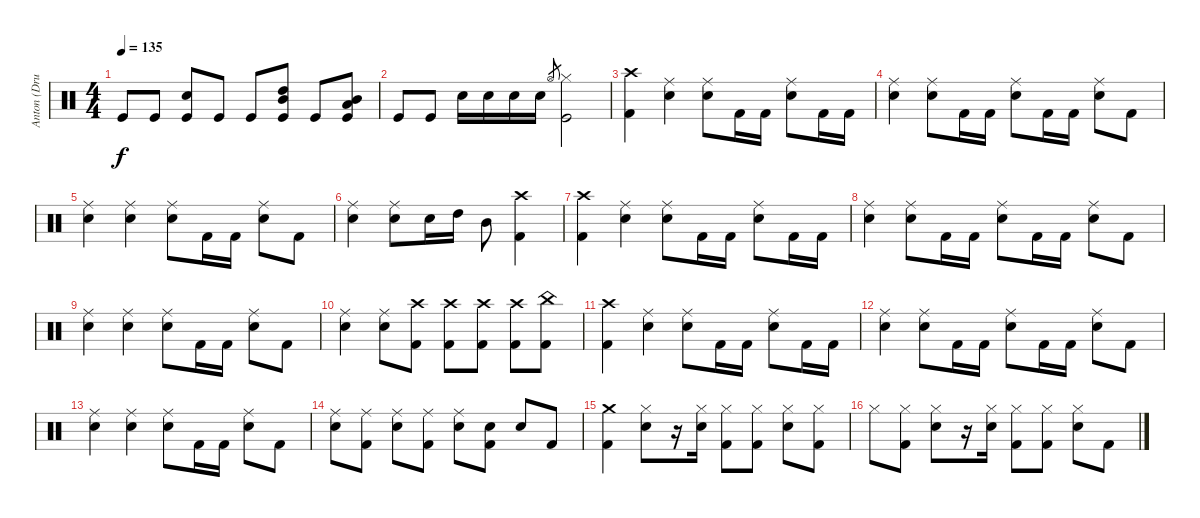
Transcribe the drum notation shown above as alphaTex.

\track ("Anton (Drum)" "Anton (Dru") {instrument percussion}
\staff {score}
\articulation defaults
\ts (4 4)
\tempo 135
\clef neutral
\ks c "Kick (hit)".8{dy f} "Kick (hit)".8
("Kick (hit)" "Snare (hit) 2").8 "Kick (hit)".8 "Kick (hit)".8 ("Kick (hit)" "High Tom (hit)" "Mid Tom (hit)").8 "Kick (hit)".8 ("Kick (hit)" "Low Tom (hit)" "Mid Tom (hit)").8 |
"Kick (hit)".8 "Kick (hit)".8 "Snare (hit) 2".16 "Snare (hit) 2".16 "Snare (hit) 2".16 "Snare (hit) 2".16 "Hi-Hat (open)".8{gr} ("Kick (hit)" "Hi-Hat (closed)").2 |
("Kick (hit) 2" "Crash high (hit)").4 ("Snare (hit) 2" "Ride (middle)").4 ("Snare (hit) 2" "Ride (middle)").8 "Kick (hit) 2".16 "Kick (hit) 2".16 ("Snare (hit) 2" "Ride (middle)").8 "Kick (hit) 2".16 "Kick (hit) 2".16 |
("Snare (hit) 2" "Ride (middle)").4 ("Snare (hit) 2" "Ride (middle)").8 "Kick (hit) 2".16 "Kick (hit) 2".16 ("Snare (hit) 2" "Ride (middle)").8 "Kick (hit) 2".16 "Kick (hit) 2".16 ("Snare (hit) 2" "Ride (middle)").8 "Kick (hit) 2".8 |
("Snare (hit) 2" "Ride (middle)").4 ("Snare (hit) 2" "Ride (middle)").4 ("Snare (hit) 2" "Ride (middle)").8 "Kick (hit) 2".16 "Kick (hit) 2".16 ("Snare (hit) 2" "Ride (middle)").8 "Kick (hit) 2".8 |
("Snare (hit) 2" "Ride (middle)").4 ("Snare (hit) 2" "Ride (middle)").8 "Snare (hit) 2".16 "High Tom (hit)".16 "Mid Tom (hit)".8 ("Kick (hit) 2" "Crash high (hit)").4 |
("Kick (hit) 2" "Crash high (hit)").4 ("Snare (hit) 2" "Ride (middle)").4 ("Snare (hit) 2" "Ride (middle)").8 "Kick (hit) 2".16 "Kick (hit) 2".16 ("Snare (hit) 2" "Ride (middle)").8 "Kick (hit) 2".16 "Kick (hit) 2".16 |
("Snare (hit) 2" "Ride (middle)").4 ("Snare (hit) 2" "Ride (middle)").8 "Kick (hit) 2".16 "Kick (hit) 2".16 ("Snare (hit) 2" "Ride (middle)").8 "Kick (hit) 2".16 "Kick (hit) 2".16 ("Snare (hit) 2" "Ride (middle)").8 "Kick (hit) 2".8 |
("Snare (hit) 2" "Ride (middle)").4 ("Snare (hit) 2" "Ride (middle)").4 ("Snare (hit) 2" "Ride (middle)").8 "Kick (hit) 2".16 "Kick (hit) 2".16 ("Snare (hit) 2" "Ride (middle)").8 "Kick (hit) 2".8 |
("Snare (hit) 2" "Ride (middle)").4 ("Snare (hit) 2" "Ride (middle)").8 ("Kick (hit) 2" "Crash high (hit)").8 ("Kick (hit) 2" "Crash high (hit)").8 ("Kick (hit) 2" "Crash high (hit)").8 ("Kick (hit) 2" "Crash high (hit)").8 ("Kick (hit) 2" "China (hit)").8 |
("Kick (hit) 2" "Crash high (hit)").4 ("Snare (hit) 2" "Ride (middle)").4 ("Snare (hit) 2" "Ride (middle)").8 "Kick (hit) 2".16 "Kick (hit) 2".16 ("Snare (hit) 2" "Ride (middle)").8 "Kick (hit) 2".16 "Kick (hit) 2".16 |
("Snare (hit) 2" "Ride (middle)").4 ("Snare (hit) 2" "Ride (middle)").8 "Kick (hit) 2".16 "Kick (hit) 2".16 ("Snare (hit) 2" "Ride (middle)").8 "Kick (hit) 2".16 "Kick (hit) 2".16 ("Snare (hit) 2" "Ride (middle)").8 "Kick (hit) 2".8 |
("Snare (hit) 2" "Ride (middle)").4 ("Snare (hit) 2" "Ride (middle)").4 ("Snare (hit) 2" "Ride (middle)").8 "Kick (hit) 2".16 "Kick (hit) 2".16 ("Snare (hit) 2" "Ride (middle)").8 "Kick (hit) 2".8 |
("Snare (hit) 2" "Ride (middle)").8 ("Kick (hit) 2" "Ride (middle)").8 ("Snare (hit) 2" "Ride (middle)").8 ("Kick (hit) 2" "Ride (middle)").8 ("Snare (hit) 2" "Ride (middle)").8 ("Kick (hit) 2" "Snare (hit) 2").8 "Snare (hit) 2".8 "Kick (hit) 2".8 |
("Kick (hit) 2" "Crash medium (hit)").4 ("Snare (hit) 2" "Hi-Hat (closed)").8 r.16 ("Snare (hit) 2" "Hi-Hat (closed)").16 ("Kick (hit) 2" "Hi-Hat (closed)").8 ("Kick (hit) 2" "Hi-Hat (closed)").8 ("Snare (hit) 2" "Hi-Hat (closed)").8 ("Kick (hit) 2" "Hi-Hat (closed)").8 |
"Hi-Hat (closed)".8 ("Kick (hit) 2" "Hi-Hat (closed)").8 ("Snare (hit) 2" "Hi-Hat (closed)").8 r.16 ("Snare (hit) 2" "Hi-Hat (closed)").16 ("Kick (hit) 2" "Hi-Hat (closed)").8 ("Kick (hit) 2" "Hi-Hat (closed)").8 ("Snare (hit) 2" "Hi-Hat (closed)").8 "Kick (hit) 2".8
